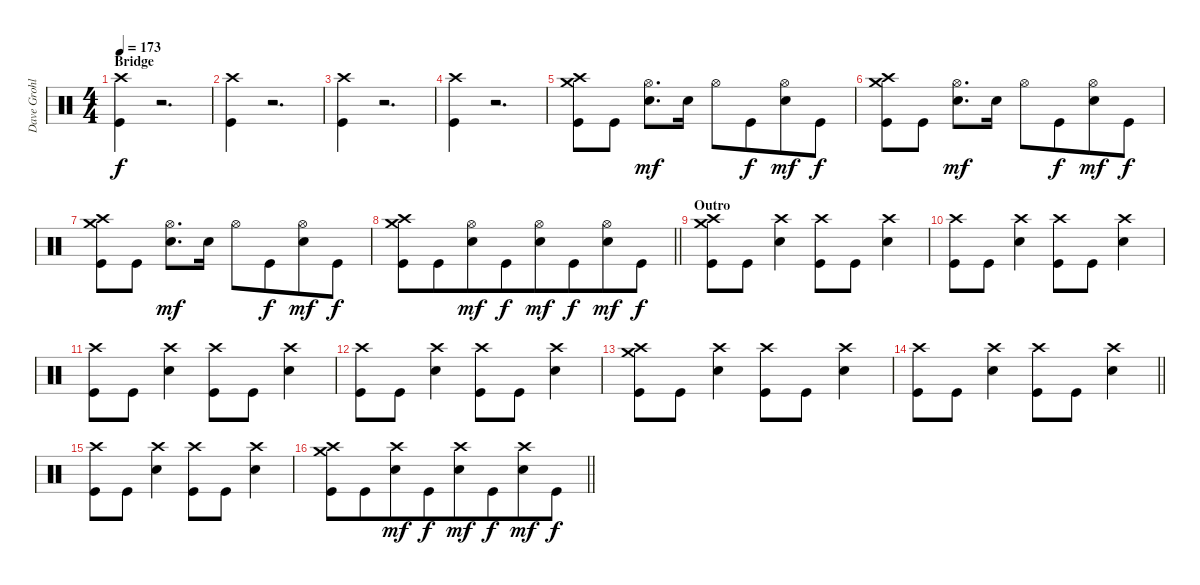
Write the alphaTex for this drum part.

\track ("Dave Grohl" "Dave Grohl") {instrument percussion}
\staff {score}
\articulation defaults
\ts (4 4)
\section ("" "Bridge")
\tempo 173
\clef neutral
\ks c
("Crash high (hit)" "Kick (hit)").4{dy f} r.2{d} |
("Crash high (hit)" "Kick (hit)").4 r.2{d} |
("Crash high (hit)" "Kick (hit)").4 r.2{d} |
("Crash high (hit)" "Kick (hit)").4 r.2{d} |
("Crash medium (hit)" "Crash high (hit)" "Kick (hit)").8 "Kick (hit)".8 ("Hi-Hat (open)" "Snare (hit) 2").8{d dy mf} "Snare (hit) 2".16 "Hi-Hat (open)".8 "Kick (hit)".8{dy f beam merge} ("Hi-Hat (open)" "Snare (hit) 2").8{dy mf} "Kick (hit)".8{dy f} |
("Crash medium (hit)" "Crash high (hit)" "Kick (hit)").8 "Kick (hit)".8 ("Hi-Hat (open)" "Snare (hit) 2").8{d dy mf} "Snare (hit) 2".16 "Hi-Hat (open)".8 "Kick (hit)".8{dy f beam merge} ("Hi-Hat (open)" "Snare (hit) 2").8{dy mf} "Kick (hit)".8{dy f} |
("Crash medium (hit)" "Crash high (hit)" "Kick (hit)").8 "Kick (hit)".8 ("Hi-Hat (open)" "Snare (hit) 2").8{d dy mf} "Snare (hit) 2".16 "Hi-Hat (open)".8 "Kick (hit)".8{dy f beam merge} ("Hi-Hat (open)" "Snare (hit) 2").8{dy mf} "Kick (hit)".8{dy f} |
\barLineRight lightlight
("Crash medium (hit)" "Crash high (hit)" "Kick (hit)").8 "Kick (hit)".8{beam merge} ("Hi-Hat (open)" "Snare (hit) 2").8{dy mf} "Kick (hit)".8{dy f beam merge} ("Hi-Hat (open)" "Snare (hit) 2").8{dy mf beam merge} "Kick (hit)".8{dy f beam merge} ("Hi-Hat (open)" "Snare (hit) 2").8{dy mf} "Kick (hit)".8{dy f} |
\section ("" "Outro")
("Crash medium (hit)" "Crash high (hit)" "Kick (hit)").8 "Kick (hit)".8 ("Crash high (hit)" "Snare (hit) 2").4 ("Crash high (hit)" "Kick (hit)").8 "Kick (hit)".8 ("Crash high (hit)" "Snare (hit) 2").4 |
("Crash high (hit)" "Kick (hit)").8 "Kick (hit)".8 ("Crash high (hit)" "Snare (hit) 2").4 ("Crash high (hit)" "Kick (hit)").8 "Kick (hit)".8 ("Crash high (hit)" "Snare (hit) 2").4 |
("Crash high (hit)" "Kick (hit)").8 "Kick (hit)".8 ("Crash high (hit)" "Snare (hit) 2").4 ("Crash high (hit)" "Kick (hit)").8 "Kick (hit)".8 ("Crash high (hit)" "Snare (hit) 2").4 |
("Crash high (hit)" "Kick (hit)").8 "Kick (hit)".8 ("Crash high (hit)" "Snare (hit) 2").4 ("Crash high (hit)" "Kick (hit)").8 "Kick (hit)".8 ("Crash high (hit)" "Snare (hit) 2").4 |
("Crash medium (hit)" "Crash high (hit)" "Kick (hit)").8 "Kick (hit)".8 ("Crash high (hit)" "Snare (hit) 2").4 ("Crash high (hit)" "Kick (hit)").8 "Kick (hit)".8 ("Crash high (hit)" "Snare (hit) 2").4 |
\barLineRight lightlight
("Crash high (hit)" "Kick (hit)").8 "Kick (hit)".8 ("Crash high (hit)" "Snare (hit) 2").4 ("Crash high (hit)" "Kick (hit)").8 "Kick (hit)".8 ("Crash high (hit)" "Snare (hit) 2").4 |
("Crash high (hit)" "Kick (hit)").8 "Kick (hit)".8 ("Crash high (hit)" "Snare (hit) 2").4 ("Crash high (hit)" "Kick (hit)").8 "Kick (hit)".8 ("Crash high (hit)" "Snare (hit) 2").4 |
\barLineRight lightlight
("Crash medium (hit)" "Crash high (hit)" "Kick (hit)").8 "Kick (hit)".8{beam merge} ("Crash high (hit)" "Snare (hit) 2").8{dy mf} "Kick (hit)".8{dy f beam merge} ("Crash high (hit)" "Snare (hit) 2").8{dy mf beam merge} "Kick (hit)".8{dy f beam merge} ("Crash high (hit)" "Snare (hit) 2").8{dy mf} "Kick (hit)".8{dy f}
